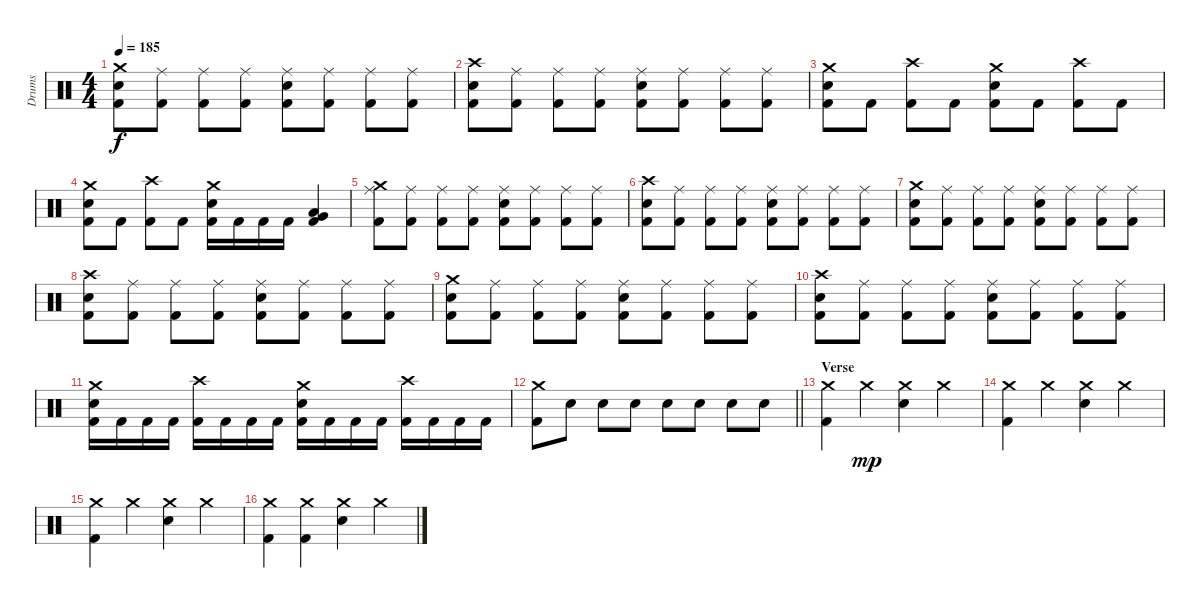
\track ("Drums" "Drums") {instrument percussion}
\staff {score}
\articulation defaults
\ts (4 4)
\tempo 185
\clef neutral
\ks c
("Crash medium (hit)" "Electric Snare (hit)" "Kick (hit) 2").8{dy f} ("Ride (middle)" "Kick (hit) 2").8 ("Ride (middle)" "Kick (hit) 2").8 ("Ride (middle)" "Kick (hit) 2").8 ("Ride (middle)" "Electric Snare (hit)" "Kick (hit) 2").8 ("Ride (middle)" "Kick (hit) 2").8 ("Ride (middle)" "Kick (hit) 2").8 ("Ride (middle)" "Kick (hit) 2").8 |
("Crash high (hit)" "Electric Snare (hit)" "Kick (hit) 2").8 ("Ride (middle)" "Kick (hit) 2").8 ("Ride (middle)" "Kick (hit) 2").8 ("Ride (middle)" "Kick (hit) 2").8 ("Ride (middle)" "Electric Snare (hit)" "Kick (hit) 2").8 ("Ride (middle)" "Kick (hit) 2").8 ("Ride (middle)" "Kick (hit) 2").8 ("Ride (middle)" "Kick (hit) 2").8 |
("Crash medium (hit)" "Electric Snare (hit)" "Kick (hit) 2").8 "Kick (hit) 2".8 ("Crash high (hit)" "Kick (hit) 2").8 "Kick (hit) 2".8 ("Crash medium (hit)" "Electric Snare (hit)" "Kick (hit) 2").8 "Kick (hit) 2".8 ("Crash high (hit)" "Kick (hit) 2").8 "Kick (hit) 2".8 |
("Crash medium (hit)" "Electric Snare (hit)" "Kick (hit) 2").8 "Kick (hit) 2".8 ("Crash high (hit)" "Kick (hit) 2").8 "Kick (hit) 2".8 ("Crash medium (hit)" "Electric Snare (hit)" "Kick (hit) 2").16 "Kick (hit) 2".16 "Kick (hit) 2".16 "Kick (hit) 2".16 ("Low Tom (hit)" "Very Low Tom (hit)" "Kick (hit) 2").4 |
("Crash medium (hit)" "Ride (middle)" "Kick (hit) 2").8 ("Ride (middle)" "Kick (hit) 2").8 ("Ride (middle)" "Kick (hit) 2").8 ("Ride (middle)" "Kick (hit) 2").8 ("Ride (middle)" "Electric Snare (hit)" "Kick (hit) 2").8 ("Ride (middle)" "Kick (hit) 2").8 ("Ride (middle)" "Kick (hit) 2").8 ("Ride (middle)" "Kick (hit) 2").8 |
("Crash high (hit)" "Electric Snare (hit)" "Kick (hit) 2").8 ("Ride (middle)" "Kick (hit) 2").8 ("Ride (middle)" "Kick (hit) 2").8 ("Ride (middle)" "Kick (hit) 2").8 ("Ride (middle)" "Electric Snare (hit)" "Kick (hit) 2").8 ("Ride (middle)" "Kick (hit) 2").8 ("Ride (middle)" "Kick (hit) 2").8 ("Ride (middle)" "Kick (hit) 2").8 |
("Crash medium (hit)" "Electric Snare (hit)" "Kick (hit) 2").8 ("Ride (middle)" "Kick (hit) 2").8 ("Ride (middle)" "Kick (hit) 2").8 ("Ride (middle)" "Kick (hit) 2").8 ("Ride (middle)" "Electric Snare (hit)" "Kick (hit) 2").8 ("Ride (middle)" "Kick (hit) 2").8 ("Ride (middle)" "Kick (hit) 2").8 ("Ride (middle)" "Kick (hit) 2").8 |
("Crash high (hit)" "Electric Snare (hit)" "Kick (hit) 2").8 ("Ride (middle)" "Kick (hit) 2").8 ("Ride (middle)" "Kick (hit) 2").8 ("Ride (middle)" "Kick (hit) 2").8 ("Ride (middle)" "Electric Snare (hit)" "Kick (hit) 2").8 ("Ride (middle)" "Kick (hit) 2").8 ("Ride (middle)" "Kick (hit) 2").8 ("Ride (middle)" "Kick (hit) 2").8 |
("Crash medium (hit)" "Electric Snare (hit)" "Kick (hit) 2").8 ("Ride (middle)" "Kick (hit) 2").8 ("Ride (middle)" "Kick (hit) 2").8 ("Ride (middle)" "Kick (hit) 2").8 ("Ride (middle)" "Electric Snare (hit)" "Kick (hit) 2").8 ("Ride (middle)" "Kick (hit) 2").8 ("Ride (middle)" "Kick (hit) 2").8 ("Ride (middle)" "Kick (hit) 2").8 |
("Crash high (hit)" "Electric Snare (hit)" "Kick (hit) 2").8 ("Ride (middle)" "Kick (hit) 2").8 ("Ride (middle)" "Kick (hit) 2").8 ("Ride (middle)" "Kick (hit) 2").8 ("Ride (middle)" "Electric Snare (hit)" "Kick (hit) 2").8 ("Ride (middle)" "Kick (hit) 2").8 ("Ride (middle)" "Kick (hit) 2").8 ("Ride (middle)" "Kick (hit) 2").8 |
("Crash medium (hit)" "Electric Snare (hit)" "Kick (hit) 2").16 "Kick (hit) 2".16 "Kick (hit) 2".16 "Kick (hit) 2".16 ("Crash high (hit)" "Kick (hit) 2").16 "Kick (hit) 2".16 "Kick (hit) 2".16 "Kick (hit) 2".16 ("Crash medium (hit)" "Electric Snare (hit)" "Kick (hit) 2").16 "Kick (hit) 2".16 "Kick (hit) 2".16 "Kick (hit) 2".16 ("Crash high (hit)" "Kick (hit) 2").16 "Kick (hit) 2".16 "Kick (hit) 2".16 "Kick (hit) 2".16 |
\barLineRight lightlight
("Crash medium (hit)" "Kick (hit) 2").8 "Electric Snare (hit)".8 "Electric Snare (hit)".8 "Electric Snare (hit)".8 "Electric Snare (hit)".8 "Electric Snare (hit)".8 "Electric Snare (hit)".8 "Electric Snare (hit)".8 |
\section ("" "Verse")
("Crash medium (hit)" "Kick (hit) 2").4 "Crash medium (hit)".4{dy mp} ("Crash medium (hit)" "Electric Snare (hit)").4 "Crash medium (hit)".4 |
("Crash medium (hit)" "Kick (hit) 2").4 "Crash medium (hit)".4 ("Crash medium (hit)" "Electric Snare (hit)").4 "Crash medium (hit)".4 |
("Crash medium (hit)" "Kick (hit) 2").4 "Crash medium (hit)".4 ("Crash medium (hit)" "Electric Snare (hit)").4 "Crash medium (hit)".4 |
("Crash medium (hit)" "Kick (hit) 2").4 ("Crash medium (hit)" "Kick (hit) 2").4 ("Crash medium (hit)" "Electric Snare (hit)").4 "Crash medium (hit)".4
